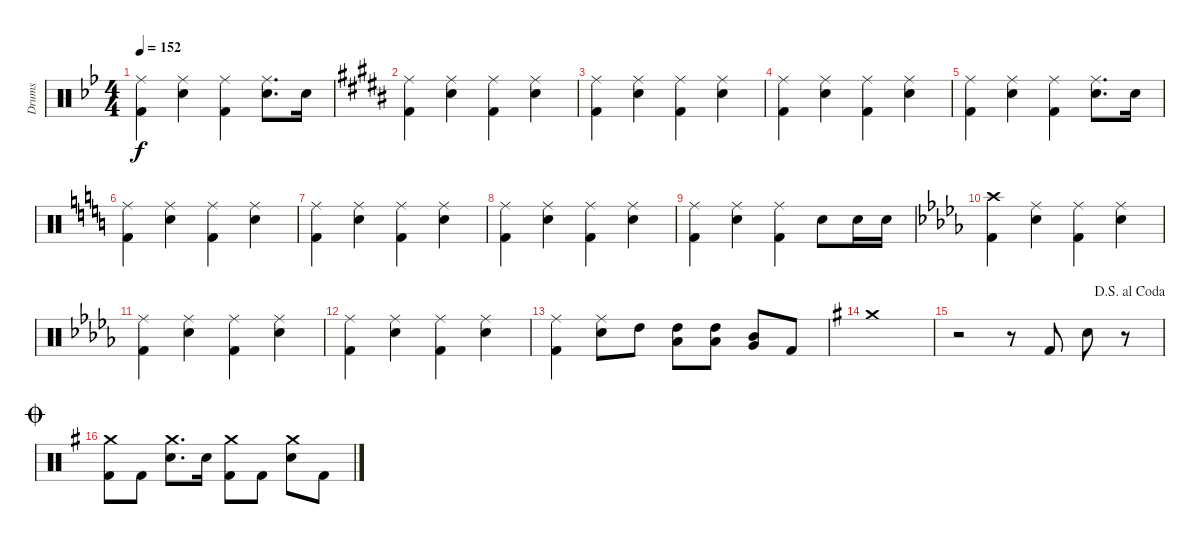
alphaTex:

\track ("Drums" "Drums") {instrument percussion}
\staff {score}
\articulation defaults
\ts (4 4)
\tempo 152
\clef neutral
\ks bb
("Ride (middle)" "Kick (hit) 2").4{dy f} ("Ride (middle)" "Snare (hit) 2").4 ("Ride (middle)" "Kick (hit) 2").4 ("Ride (middle)" "Snare (hit) 2").8{d} "Snare (hit) 2".16 |
\ks b
("Ride (middle)" "Kick (hit) 2").4 ("Ride (middle)" "Snare (hit) 2").4 ("Ride (middle)" "Kick (hit) 2").4 ("Ride (middle)" "Snare (hit) 2").4 |
("Ride (middle)" "Kick (hit) 2").4 ("Ride (middle)" "Snare (hit) 2").4 ("Ride (middle)" "Kick (hit) 2").4 ("Ride (middle)" "Snare (hit) 2").4 |
("Ride (middle)" "Kick (hit) 2").4 ("Ride (middle)" "Snare (hit) 2").4 ("Ride (middle)" "Kick (hit) 2").4 ("Ride (middle)" "Snare (hit) 2").4 |
("Ride (middle)" "Kick (hit) 2").4 ("Ride (middle)" "Snare (hit) 2").4 ("Ride (middle)" "Kick (hit) 2").4 ("Ride (middle)" "Snare (hit) 2").8{d} "Snare (hit) 2".16 |
\ks c
("Ride (middle)" "Kick (hit) 2").4 ("Ride (middle)" "Snare (hit) 2").4 ("Ride (middle)" "Kick (hit) 2").4 ("Ride (middle)" "Snare (hit) 2").4 |
("Ride (middle)" "Kick (hit) 2").4 ("Ride (middle)" "Snare (hit) 2").4 ("Ride (middle)" "Kick (hit) 2").4 ("Ride (middle)" "Snare (hit) 2").4 |
("Ride (middle)" "Kick (hit) 2").4 ("Ride (middle)" "Snare (hit) 2").4 ("Ride (middle)" "Kick (hit) 2").4 ("Ride (middle)" "Snare (hit) 2").4 |
("Ride (middle)" "Kick (hit) 2").4 ("Ride (middle)" "Snare (hit) 2").4 ("Ride (middle)" "Kick (hit) 2").4 "Snare (hit) 2".8 "Snare (hit) 2".16 "Snare (hit) 2".16 |
\ks db
("Crash high (hit)" "Kick (hit) 2").4 ("Ride (middle)" "Snare (hit) 2").4 ("Ride (middle)" "Kick (hit) 2").4 ("Ride (middle)" "Snare (hit) 2").4 |
("Ride (middle)" "Kick (hit) 2").4 ("Ride (middle)" "Snare (hit) 2").4 ("Ride (middle)" "Kick (hit) 2").4 ("Ride (middle)" "Snare (hit) 2").4 |
("Ride (middle)" "Kick (hit) 2").4 ("Ride (middle)" "Snare (hit) 2").4 ("Ride (middle)" "Kick (hit) 2").4 ("Ride (middle)" "Snare (hit) 2").4 |
("Ride (middle)" "Kick (hit) 2").4 ("Ride (middle)" "Snare (hit) 2").8 "High Tom (hit)".8 ("High Tom (hit)" "Low Tom (hit)").8 ("High Tom (hit)" "Low Tom (hit)").8 ("Mid Tom (hit)" "Very Low Tom (hit)").8 "Kick (hit) 2".8 |
\ks g "Crash medium (hit)".1
|
\jump dalsegnoalcoda
r.2 r.8 "Kick (hit) 2".8 "Snare (hit) 2".8 r.8 |
\jump coda
("Crash medium (hit)" "Kick (hit) 2").8 "Kick (hit) 2".8 ("Crash medium (hit)" "Snare (hit) 2").8{d} "Snare (hit) 2".16 ("Crash medium (hit)" "Kick (hit) 2").8 "Kick (hit) 2".8 ("Crash medium (hit)" "Snare (hit) 2").8 "Kick (hit) 2".8
